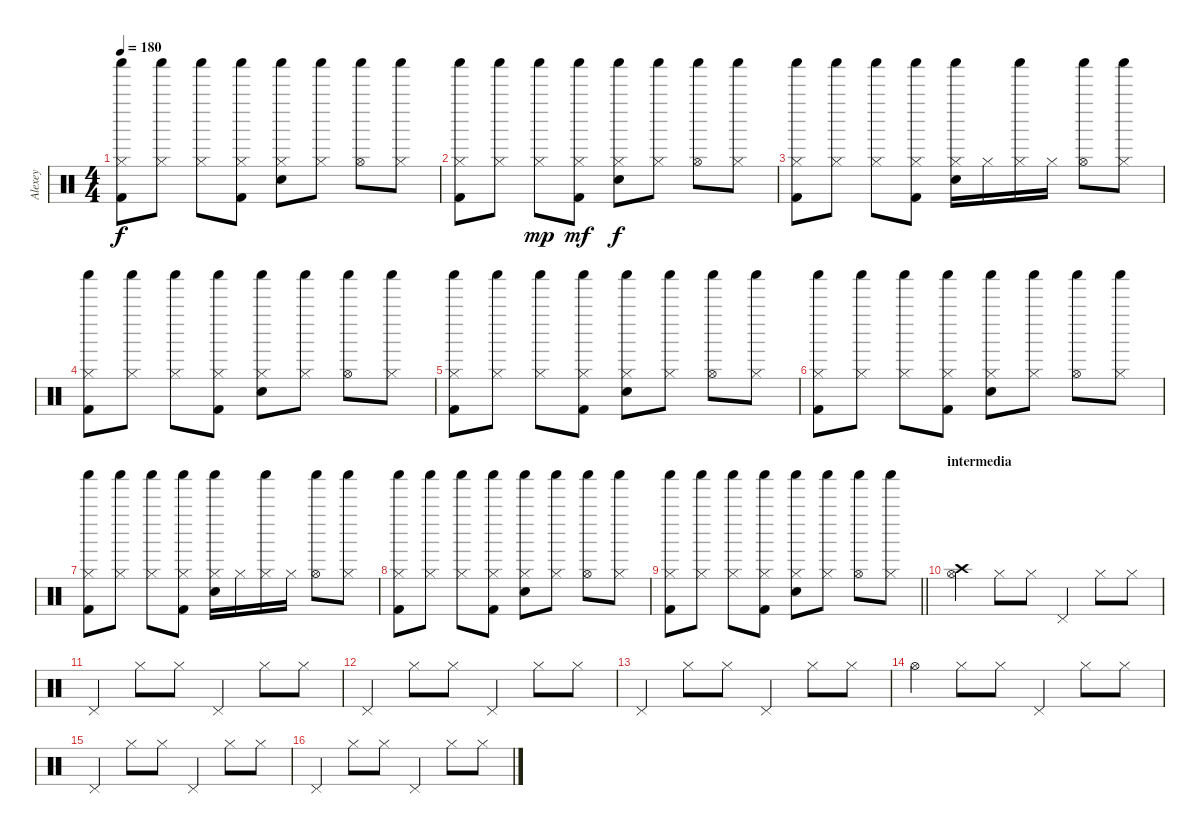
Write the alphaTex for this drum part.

\track ("Alexey" "Alexey") {instrument percussion}
\staff {score}
\articulation defaults
\ts (4 4)
\tempo 180
\clef neutral
\ks c
("Hi-Hat (closed)" "Shaker (hit)" "Kick (hit) 2").8{dy f} ("Hi-Hat (closed)" "Shaker (hit)").8 ("Hi-Hat (closed)" "Shaker (hit)").8 ("Hi-Hat (closed)" "Shaker (hit)" "Kick (hit) 2").8 ("Hi-Hat (closed)" "Shaker (hit)" "Snare (hit) 2").8 ("Hi-Hat (closed)" "Shaker (hit)").8 ("Hi-Hat (open)" "Shaker (hit)").8 ("Hi-Hat (closed)" "Shaker (hit)").8 |
("Hi-Hat (closed)" "Shaker (hit)" "Kick (hit) 2").8 ("Hi-Hat (closed)" "Shaker (hit)").8 ("Hi-Hat (closed)" "Shaker (hit)").8{dy mp} ("Hi-Hat (closed)" "Shaker (hit)" "Kick (hit) 2").8{dy mf} ("Hi-Hat (closed)" "Shaker (hit)" "Snare (hit) 2").8{dy f} ("Hi-Hat (closed)" "Shaker (hit)").8 ("Hi-Hat (open)" "Shaker (hit)").8 ("Hi-Hat (closed)" "Shaker (hit)").8 |
("Hi-Hat (closed)" "Shaker (hit)" "Kick (hit) 2").8 ("Hi-Hat (closed)" "Shaker (hit)").8 ("Hi-Hat (closed)" "Shaker (hit)").8 ("Hi-Hat (closed)" "Shaker (hit)" "Kick (hit) 2").8 ("Hi-Hat (closed)" "Shaker (hit)" "Snare (hit) 2").16 "Hi-Hat (closed)".16 ("Hi-Hat (closed)" "Shaker (hit)").16 "Hi-Hat (closed)".16 ("Hi-Hat (open)" "Shaker (hit)").8 ("Hi-Hat (closed)" "Shaker (hit)").8 |
("Hi-Hat (closed)" "Shaker (hit)" "Kick (hit) 2").8 ("Hi-Hat (closed)" "Shaker (hit)").8 ("Hi-Hat (closed)" "Shaker (hit)").8 ("Hi-Hat (closed)" "Shaker (hit)" "Kick (hit) 2").8 ("Hi-Hat (closed)" "Shaker (hit)" "Snare (hit) 2").8 ("Hi-Hat (closed)" "Shaker (hit)").8 ("Hi-Hat (open)" "Shaker (hit)").8 ("Hi-Hat (closed)" "Shaker (hit)").8 |
("Hi-Hat (closed)" "Shaker (hit)" "Kick (hit) 2").8 ("Hi-Hat (closed)" "Shaker (hit)").8 ("Hi-Hat (closed)" "Shaker (hit)").8 ("Hi-Hat (closed)" "Shaker (hit)" "Kick (hit) 2").8 ("Hi-Hat (closed)" "Shaker (hit)" "Snare (hit) 2").8 ("Hi-Hat (closed)" "Shaker (hit)").8 ("Hi-Hat (open)" "Shaker (hit)").8 ("Hi-Hat (closed)" "Shaker (hit)").8 |
("Hi-Hat (closed)" "Shaker (hit)" "Kick (hit) 2").8 ("Hi-Hat (closed)" "Shaker (hit)").8 ("Hi-Hat (closed)" "Shaker (hit)").8 ("Hi-Hat (closed)" "Shaker (hit)" "Kick (hit) 2").8 ("Hi-Hat (closed)" "Shaker (hit)" "Snare (hit) 2").8 ("Hi-Hat (closed)" "Shaker (hit)").8 ("Hi-Hat (open)" "Shaker (hit)").8 ("Hi-Hat (closed)" "Shaker (hit)").8 |
("Hi-Hat (closed)" "Shaker (hit)" "Kick (hit) 2").8 ("Hi-Hat (closed)" "Shaker (hit)").8 ("Hi-Hat (closed)" "Shaker (hit)").8 ("Hi-Hat (closed)" "Shaker (hit)" "Kick (hit) 2").8 ("Hi-Hat (closed)" "Shaker (hit)" "Snare (hit) 2").16 "Hi-Hat (closed)".16 ("Hi-Hat (closed)" "Shaker (hit)").16 "Hi-Hat (closed)".16 ("Hi-Hat (open)" "Shaker (hit)").8 ("Hi-Hat (closed)" "Shaker (hit)").8 |
("Hi-Hat (closed)" "Shaker (hit)" "Kick (hit) 2").8 ("Hi-Hat (closed)" "Shaker (hit)").8 ("Hi-Hat (closed)" "Shaker (hit)").8 ("Hi-Hat (closed)" "Shaker (hit)" "Kick (hit) 2").8 ("Hi-Hat (closed)" "Shaker (hit)" "Snare (hit) 2").8 ("Hi-Hat (closed)" "Shaker (hit)").8 ("Hi-Hat (open)" "Shaker (hit)").8 ("Hi-Hat (closed)" "Shaker (hit)").8 |
\barLineRight lightlight
("Hi-Hat (closed)" "Shaker (hit)" "Kick (hit) 2").8 ("Hi-Hat (closed)" "Shaker (hit)").8 ("Hi-Hat (closed)" "Shaker (hit)").8 ("Hi-Hat (closed)" "Shaker (hit)" "Kick (hit) 2").8 ("Hi-Hat (closed)" "Shaker (hit)" "Snare (hit) 2").8 ("Hi-Hat (closed)" "Shaker (hit)").8 ("Hi-Hat (open)" "Shaker (hit)").8 ("Hi-Hat (closed)" "Shaker (hit)").8 |
\section ("" "intermedia")
("Hi-Hat (open)" "Crash high (hit)").4 "Hi-Hat (closed)".8 "Hi-Hat (closed)".8 "Pedal Hi-Hat (hit)".4 "Hi-Hat (closed)".8 "Hi-Hat (closed)".8 |
"Pedal Hi-Hat (hit)".4 "Hi-Hat (closed)".8 "Hi-Hat (closed)".8 "Pedal Hi-Hat (hit)".4 "Hi-Hat (closed)".8 "Hi-Hat (closed)".8 |
"Pedal Hi-Hat (hit)".4 "Hi-Hat (closed)".8 "Hi-Hat (closed)".8 "Pedal Hi-Hat (hit)".4 "Hi-Hat (closed)".8 "Hi-Hat (closed)".8 |
"Pedal Hi-Hat (hit)".4 "Hi-Hat (closed)".8 "Hi-Hat (closed)".8 "Pedal Hi-Hat (hit)".4 "Hi-Hat (closed)".8 "Hi-Hat (closed)".8 |
"Hi-Hat (open)".4 "Hi-Hat (closed)".8 "Hi-Hat (closed)".8 "Pedal Hi-Hat (hit)".4 "Hi-Hat (closed)".8 "Hi-Hat (closed)".8 |
"Pedal Hi-Hat (hit)".4 "Hi-Hat (closed)".8 "Hi-Hat (closed)".8 "Pedal Hi-Hat (hit)".4 "Hi-Hat (closed)".8 "Hi-Hat (closed)".8 |
"Pedal Hi-Hat (hit)".4 "Hi-Hat (closed)".8 "Hi-Hat (closed)".8 "Pedal Hi-Hat (hit)".4 "Hi-Hat (closed)".8 "Hi-Hat (closed)".8
